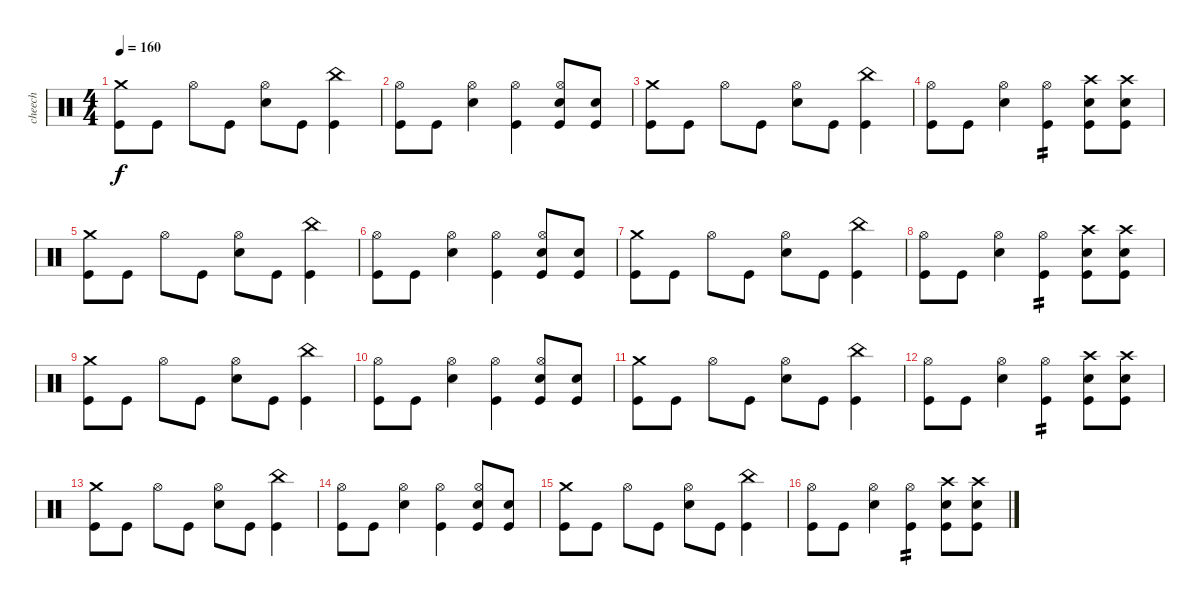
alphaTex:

\track ("cheech" "cheech") {instrument percussion}
\staff {score}
\articulation defaults
\ts (4 4)
\tempo 160
\clef neutral
\ks c
("Crash medium (hit)" "Kick (hit)").8{dy f} "Kick (hit)".8 "Hi-Hat (open)".8 "Kick (hit)".8 ("Hi-Hat (open)" "Electric Snare (hit)").8 "Kick (hit)".8 ("China (hit)" "Kick (hit)").4 |
("Hi-Hat (open)" "Kick (hit)").8 "Kick (hit)".8 ("Hi-Hat (open)" "Electric Snare (hit)").4 ("Hi-Hat (open)" "Kick (hit)").4 ("Hi-Hat (open)" "Electric Snare (hit)" "Kick (hit)").8 ("Electric Snare (hit)" "Kick (hit)").8 |
("Crash medium (hit)" "Kick (hit)").8 "Kick (hit)".8 "Hi-Hat (open)".8 "Kick (hit)".8 ("Hi-Hat (open)" "Electric Snare (hit)").8 "Kick (hit)".8 ("China (hit)" "Kick (hit)").4 |
("Hi-Hat (open)" "Kick (hit)").8 "Kick (hit)".8 ("Hi-Hat (open)" "Electric Snare (hit)").4 ("Hi-Hat (open)" "Kick (hit)").4{tp 2} ("Crash high (hit)" "Electric Snare (hit)" "Kick (hit)").8 ("Crash high (hit)" "Electric Snare (hit)" "Kick (hit)").8 |
("Crash medium (hit)" "Kick (hit)").8 "Kick (hit)".8 "Hi-Hat (open)".8 "Kick (hit)".8 ("Hi-Hat (open)" "Electric Snare (hit)").8 "Kick (hit)".8 ("China (hit)" "Kick (hit)").4 |
("Hi-Hat (open)" "Kick (hit)").8 "Kick (hit)".8 ("Hi-Hat (open)" "Electric Snare (hit)").4 ("Hi-Hat (open)" "Kick (hit)").4 ("Hi-Hat (open)" "Electric Snare (hit)" "Kick (hit)").8 ("Electric Snare (hit)" "Kick (hit)").8 |
("Crash medium (hit)" "Kick (hit)").8 "Kick (hit)".8 "Hi-Hat (open)".8 "Kick (hit)".8 ("Hi-Hat (open)" "Electric Snare (hit)").8 "Kick (hit)".8 ("China (hit)" "Kick (hit)").4 |
("Hi-Hat (open)" "Kick (hit)").8 "Kick (hit)".8 ("Hi-Hat (open)" "Electric Snare (hit)").4 ("Hi-Hat (open)" "Kick (hit)").4{tp 2} ("Crash high (hit)" "Electric Snare (hit)" "Kick (hit)").8 ("Crash high (hit)" "Electric Snare (hit)" "Kick (hit)").8 |
("Crash medium (hit)" "Kick (hit)").8 "Kick (hit)".8 "Hi-Hat (open)".8 "Kick (hit)".8 ("Hi-Hat (open)" "Electric Snare (hit)").8 "Kick (hit)".8 ("China (hit)" "Kick (hit)").4 |
("Hi-Hat (open)" "Kick (hit)").8 "Kick (hit)".8 ("Hi-Hat (open)" "Electric Snare (hit)").4 ("Hi-Hat (open)" "Kick (hit)").4 ("Hi-Hat (open)" "Electric Snare (hit)" "Kick (hit)").8 ("Electric Snare (hit)" "Kick (hit)").8 |
("Crash medium (hit)" "Kick (hit)").8 "Kick (hit)".8 "Hi-Hat (open)".8 "Kick (hit)".8 ("Hi-Hat (open)" "Electric Snare (hit)").8 "Kick (hit)".8 ("China (hit)" "Kick (hit)").4 |
("Hi-Hat (open)" "Kick (hit)").8 "Kick (hit)".8 ("Hi-Hat (open)" "Electric Snare (hit)").4 ("Hi-Hat (open)" "Kick (hit)").4{tp 2} ("Crash high (hit)" "Electric Snare (hit)" "Kick (hit)").8 ("Crash high (hit)" "Electric Snare (hit)" "Kick (hit)").8 |
("Crash medium (hit)" "Kick (hit)").8 "Kick (hit)".8 "Hi-Hat (open)".8 "Kick (hit)".8 ("Hi-Hat (open)" "Electric Snare (hit)").8 "Kick (hit)".8 ("China (hit)" "Kick (hit)").4 |
("Hi-Hat (open)" "Kick (hit)").8 "Kick (hit)".8 ("Hi-Hat (open)" "Electric Snare (hit)").4 ("Hi-Hat (open)" "Kick (hit)").4 ("Hi-Hat (open)" "Electric Snare (hit)" "Kick (hit)").8 ("Electric Snare (hit)" "Kick (hit)").8 |
("Crash medium (hit)" "Kick (hit)").8 "Kick (hit)".8 "Hi-Hat (open)".8 "Kick (hit)".8 ("Hi-Hat (open)" "Electric Snare (hit)").8 "Kick (hit)".8 ("China (hit)" "Kick (hit)").4 |
("Hi-Hat (open)" "Kick (hit)").8 "Kick (hit)".8 ("Hi-Hat (open)" "Electric Snare (hit)").4 ("Hi-Hat (open)" "Kick (hit)").4{tp 2} ("Crash high (hit)" "Electric Snare (hit)" "Kick (hit)").8 ("Crash high (hit)" "Electric Snare (hit)" "Kick (hit)").8
